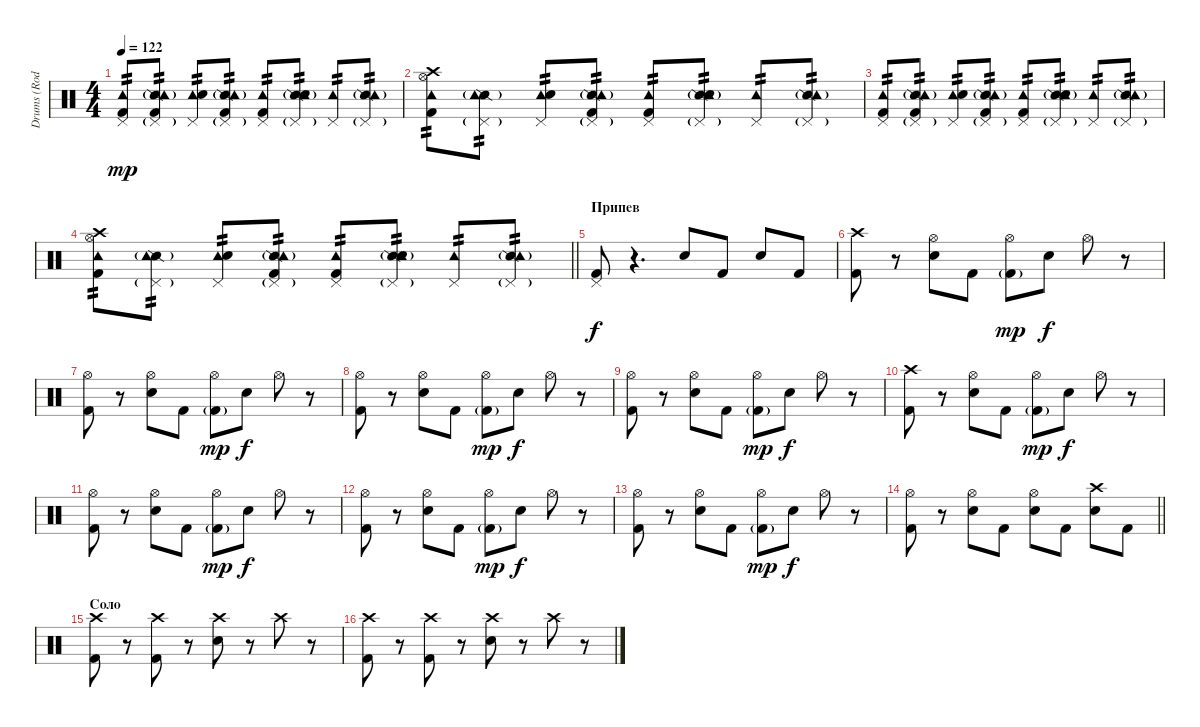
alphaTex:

\track ("Drums (Rod Bourdon)" "Drums (Rod") {instrument percussion}
\staff {score}
\articulation defaults
\ts (4 4)
\tempo 122
\clef neutral
\ks c
("Pedal Hi-Hat (hit)" "Tambourine (hit)" "Kick (hit) 2").8{tp 2 dy mp} ("Snare (side stick) 2"{g} "Pedal Hi-Hat (hit)"{g} "Tambourine (hit)" "Kick (hit) 2").8{tp 2} ("Pedal Hi-Hat (hit)" "Tambourine (hit)" "Electric Snare (hit)").8{tp 2} ("Snare (side stick) 2"{g} "Pedal Hi-Hat (hit)"{g} "Tambourine (hit)" "Kick (hit) 2").8{tp 2} ("Pedal Hi-Hat (hit)" "Tambourine (hit)" "Kick (hit) 2").8{tp 2} ("Snare (side stick) 2"{g} "Pedal Hi-Hat (hit)"{g} "Tambourine (hit)" "Electric Snare (hit)").8{tp 2} ("Pedal Hi-Hat (hit)" "Tambourine (hit)").8{tp 2} ("Snare (side stick) 2"{g} "Pedal Hi-Hat (hit)"{g} "Tambourine (hit)").8{tp 2} |
("Crash high (hit)" "Hi-Hat (open)" "Tambourine (hit)" "Kick (hit) 2").8{tp 2} ("Snare (side stick) 2"{g} "Pedal Hi-Hat (hit)"{g} "Tambourine (hit)").8{tp 2} ("Pedal Hi-Hat (hit)" "Tambourine (hit)" "Electric Snare (hit)").8{tp 2} ("Snare (side stick) 2"{g} "Pedal Hi-Hat (hit)"{g} "Tambourine (hit)" "Kick (hit) 2").8{tp 2} ("Pedal Hi-Hat (hit)" "Tambourine (hit)" "Kick (hit) 2").8{tp 2} ("Snare (side stick) 2"{g} "Pedal Hi-Hat (hit)"{g} "Tambourine (hit)" "Electric Snare (hit)").8{tp 2} ("Pedal Hi-Hat (hit)" "Tambourine (hit)").8{tp 2} ("Snare (side stick) 2"{g} "Pedal Hi-Hat (hit)"{g} "Tambourine (hit)").8{tp 2} |
("Pedal Hi-Hat (hit)" "Tambourine (hit)" "Kick (hit) 2").8{tp 2} ("Snare (side stick) 2"{g} "Pedal Hi-Hat (hit)"{g} "Tambourine (hit)" "Kick (hit) 2").8{tp 2} ("Pedal Hi-Hat (hit)" "Tambourine (hit)" "Electric Snare (hit)").8{tp 2} ("Snare (side stick) 2"{g} "Pedal Hi-Hat (hit)"{g} "Tambourine (hit)" "Kick (hit) 2").8{tp 2} ("Pedal Hi-Hat (hit)" "Tambourine (hit)" "Kick (hit) 2").8{tp 2} ("Snare (side stick) 2"{g} "Pedal Hi-Hat (hit)"{g} "Tambourine (hit)" "Electric Snare (hit)").8{tp 2} ("Pedal Hi-Hat (hit)" "Tambourine (hit)").8{tp 2} ("Snare (side stick) 2"{g} "Pedal Hi-Hat (hit)"{g} "Tambourine (hit)").8{tp 2} |
\barLineRight lightlight
("Crash high (hit)" "Hi-Hat (open)" "Tambourine (hit)" "Kick (hit) 2").8{tp 2} ("Snare (side stick) 2"{g} "Pedal Hi-Hat (hit)"{g} "Tambourine (hit)").8{tp 2} ("Pedal Hi-Hat (hit)" "Tambourine (hit)" "Electric Snare (hit)").8{tp 2} ("Snare (side stick) 2"{g} "Pedal Hi-Hat (hit)"{g} "Tambourine (hit)" "Kick (hit) 2").8{tp 2} ("Pedal Hi-Hat (hit)" "Tambourine (hit)" "Kick (hit) 2").8{tp 2} ("Snare (side stick) 2"{g} "Pedal Hi-Hat (hit)"{g} "Tambourine (hit)" "Electric Snare (hit)").8{tp 2} ("Pedal Hi-Hat (hit)" "Tambourine (hit)").8{tp 2} ("Snare (side stick) 2"{g} "Pedal Hi-Hat (hit)"{g} "Tambourine (hit)").8{tp 2} |
\section ("" "Припев")
("Pedal Hi-Hat (hit)" "Kick (hit) 2").8{dy f} r.4{d} "Electric Snare (hit)".8 "Kick (hit) 2".8 "Electric Snare (hit)".8 "Kick (hit) 2".8 |
("Crash high (hit)" "Kick (hit) 2").8 r.8 ("Hi-Hat (open)" "Electric Snare (hit)").8 "Kick (hit) 2".8 ("Hi-Hat (open)" "Kick (hit) 2"{g}).8{dy mp} "Electric Snare (hit)".8{dy f} "Hi-Hat (open)".8 r.8 |
("Hi-Hat (open)" "Kick (hit) 2").8 r.8 ("Hi-Hat (open)" "Electric Snare (hit)").8 "Kick (hit) 2".8 ("Hi-Hat (open)" "Kick (hit) 2"{g}).8{dy mp} "Electric Snare (hit)".8{dy f} "Hi-Hat (open)".8 r.8 |
("Hi-Hat (open)" "Kick (hit) 2").8 r.8 ("Hi-Hat (open)" "Electric Snare (hit)").8 "Kick (hit) 2".8 ("Hi-Hat (open)" "Kick (hit) 2"{g}).8{dy mp} "Electric Snare (hit)".8{dy f} "Hi-Hat (open)".8 r.8 |
("Hi-Hat (open)" "Kick (hit) 2").8 r.8 ("Hi-Hat (open)" "Electric Snare (hit)").8 "Kick (hit) 2".8 ("Hi-Hat (open)" "Kick (hit) 2"{g}).8{dy mp} "Electric Snare (hit)".8{dy f} "Hi-Hat (open)".8 r.8 |
("Crash high (hit)" "Kick (hit) 2").8 r.8 ("Hi-Hat (open)" "Electric Snare (hit)").8 "Kick (hit) 2".8 ("Hi-Hat (open)" "Kick (hit) 2"{g}).8{dy mp} "Electric Snare (hit)".8{dy f} "Hi-Hat (open)".8 r.8 |
("Hi-Hat (open)" "Kick (hit) 2").8 r.8 ("Hi-Hat (open)" "Electric Snare (hit)").8 "Kick (hit) 2".8 ("Hi-Hat (open)" "Kick (hit) 2"{g}).8{dy mp} "Electric Snare (hit)".8{dy f} "Hi-Hat (open)".8 r.8 |
("Hi-Hat (open)" "Kick (hit) 2").8 r.8 ("Hi-Hat (open)" "Electric Snare (hit)").8 "Kick (hit) 2".8 ("Hi-Hat (open)" "Kick (hit) 2"{g}).8{dy mp} "Electric Snare (hit)".8{dy f} "Hi-Hat (open)".8 r.8 |
("Hi-Hat (open)" "Kick (hit) 2").8 r.8 ("Hi-Hat (open)" "Electric Snare (hit)").8 "Kick (hit) 2".8 ("Hi-Hat (open)" "Kick (hit) 2"{g}).8{dy mp} "Electric Snare (hit)".8{dy f} "Hi-Hat (open)".8 r.8 |
\barLineRight lightlight
("Hi-Hat (open)" "Kick (hit) 2").8 r.8 ("Hi-Hat (open)" "Electric Snare (hit)").8 "Kick (hit) 2".8 ("Hi-Hat (open)" "Electric Snare (hit)").8 "Kick (hit) 2".8 ("Crash high (hit)" "Electric Snare (hit)").8 "Kick (hit) 2".8 |
\section ("" "Соло")
("Crash high (hit)" "Kick (hit) 2").8 r.8 ("Crash high (hit)" "Kick (hit) 2").8 r.8 ("Crash high (hit)" "Electric Snare (hit)").8 r.8 "Crash high (hit)".8 r.8 |
("Crash high (hit)" "Kick (hit) 2").8 r.8 ("Crash high (hit)" "Kick (hit) 2").8 r.8 ("Crash high (hit)" "Electric Snare (hit)").8 r.8 "Crash high (hit)".8 r.8
